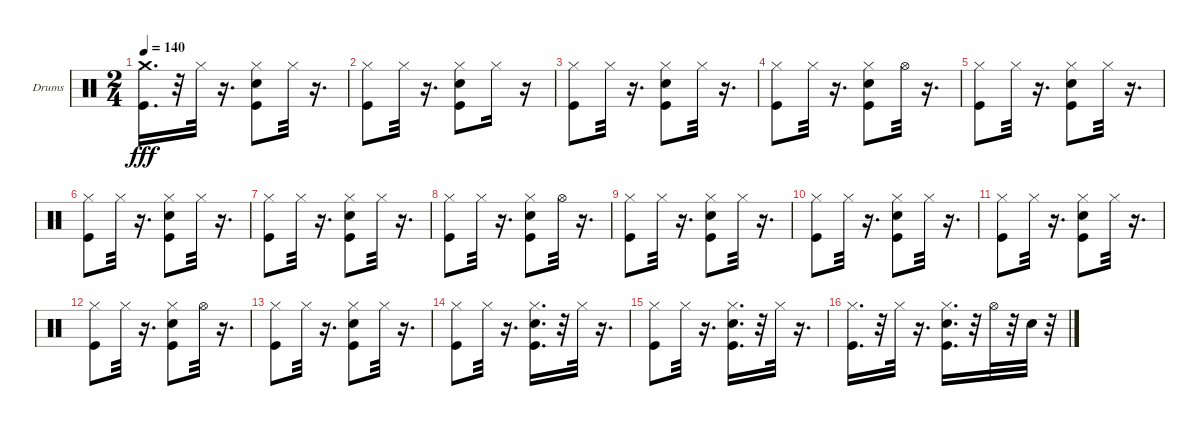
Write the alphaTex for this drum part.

\bracketExtendMode groupsimilarinstruments
\firstSystemTrackNameOrientation horizontal
\otherSystemsTrackNameOrientation horizontal
\track ("Ударные" "Drums") {instrument percussion}
\staff {score}
\articulation defaults
\ts (2 4)
\tempo 140
\clef neutral
\ks c
("Kick (hit)" "Crash medium (hit)").16{d dy fff} r.32 "Hi-Hat (closed)".32 r.16{d} ("Kick (hit)" "Snare (hit) 2" "Hi-Hat (closed)").8 "Hi-Hat (closed)".32 r.16{d} |
("Kick (hit)" "Hi-Hat (closed)").8 "Hi-Hat (closed)".32 r.16{d} ("Kick (hit)" "Hi-Hat (closed)" "Snare (hit) 2").8 "Hi-Hat (closed)".16 r.16 |
("Kick (hit)" "Hi-Hat (closed)").8 "Hi-Hat (closed)".32 r.16{d} ("Snare (hit) 2" "Kick (hit)" "Hi-Hat (closed)").8 "Hi-Hat (closed)".32 r.16{d} |
("Kick (hit)" "Hi-Hat (closed)").8 "Hi-Hat (closed)".32 r.16{d} ("Kick (hit)" "Snare (hit) 2" "Hi-Hat (closed)").8 "Hi-Hat (open)".32 r.16{d} |
("Kick (hit)" "Hi-Hat (closed)").8 "Hi-Hat (closed)".32 r.16{d} ("Snare (hit) 2" "Kick (hit)" "Hi-Hat (closed)").8 "Hi-Hat (closed)".32 r.16{d} |
("Kick (hit)" "Hi-Hat (closed)").8 "Hi-Hat (closed)".32 r.16{d} ("Snare (hit) 2" "Kick (hit)" "Hi-Hat (closed)").8 "Hi-Hat (closed)".32 r.16{d} |
("Kick (hit)" "Hi-Hat (closed)").8 "Hi-Hat (closed)".32 r.16{d} ("Snare (hit) 2" "Kick (hit)" "Hi-Hat (closed)").8 "Hi-Hat (closed)".32 r.16{d} |
("Kick (hit)" "Hi-Hat (closed)").8 "Hi-Hat (closed)".32 r.16{d} ("Snare (hit) 2" "Kick (hit)" "Hi-Hat (closed)").8 "Hi-Hat (open)".32 r.16{d} |
("Kick (hit)" "Hi-Hat (closed)").8 "Hi-Hat (closed)".32 r.16{d} ("Snare (hit) 2" "Kick (hit)" "Hi-Hat (closed)").8 "Hi-Hat (closed)".32 r.16{d} |
("Kick (hit)" "Hi-Hat (closed)").8 "Hi-Hat (closed)".32 r.16{d} ("Snare (hit) 2" "Kick (hit)" "Hi-Hat (closed)").8 "Hi-Hat (closed)".32 r.16{d} |
("Kick (hit)" "Hi-Hat (closed)").8 "Hi-Hat (closed)".32 r.16{d} ("Snare (hit) 2" "Kick (hit)" "Hi-Hat (closed)").8 "Hi-Hat (closed)".32 r.16{d} |
("Kick (hit)" "Hi-Hat (closed)").8 "Hi-Hat (closed)".32 r.16{d} ("Hi-Hat (closed)" "Snare (hit) 2" "Kick (hit)").8 "Hi-Hat (open)".32 r.16{d} |
("Kick (hit)" "Hi-Hat (closed)").8 "Hi-Hat (closed)".32 r.16{d} ("Snare (hit) 2" "Kick (hit)" "Hi-Hat (closed)").8 "Hi-Hat (closed)".32 r.16{d} |
("Kick (hit)" "Hi-Hat (closed)").8 "Hi-Hat (closed)".32 r.16{d} ("Snare (hit) 2" "Kick (hit)" "Hi-Hat (closed)").16{d} r.32 "Hi-Hat (closed)".32 r.16{d} |
("Kick (hit)" "Hi-Hat (closed)").8 "Hi-Hat (closed)".32 r.16{d} ("Snare (hit) 2" "Kick (hit)" "Hi-Hat (closed)").16{d} r.32 "Hi-Hat (closed)".32 r.16{d} |
("Kick (hit)" "Hi-Hat (closed)").16{d} r.32 "Hi-Hat (closed)".32 r.16{d} ("Kick (hit)" "Hi-Hat (closed)" "Snare (hit) 2").16{d} r.32 "Hi-Hat (open)".32 r.32 "Snare (hit) 2".32 r.32
